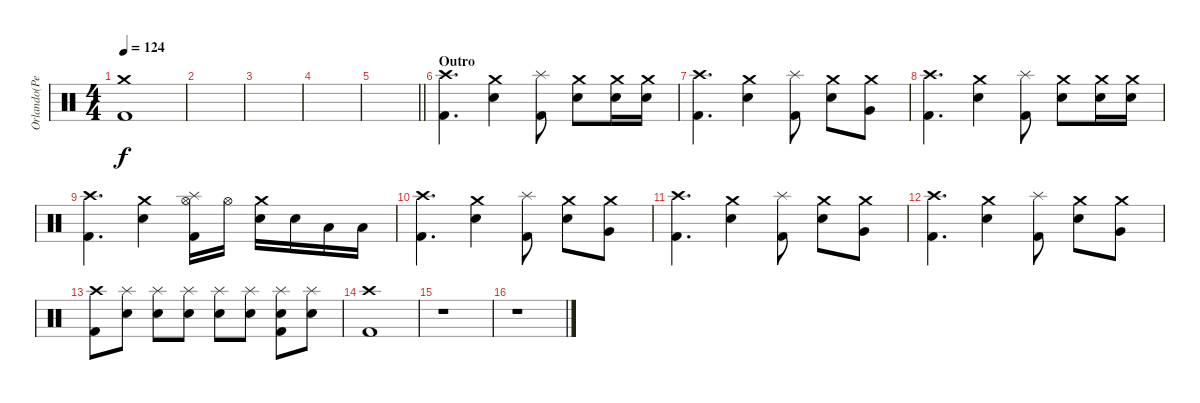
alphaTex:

\track ("Orlando(Percusión)" "Orlando(Pe") {instrument percussion}
\staff {score}
\articulation defaults
\ts (4 4)
\tempo 124
\clef neutral
\ks c
("Crash medium (hit)" "Kick (hit) 2").1{dy f} |
|
|
|
\barLineRight lightlight
|
\section ("" "Outro")
("Crash high (hit)" "Kick (hit) 2").4{d} ("Crash medium (hit)" "Electric Snare (hit)").4 ("Splash (hit)" "Kick (hit) 2").8 ("Crash medium (hit)" "Electric Snare (hit)").8 ("Crash medium (hit)" "Electric Snare (hit)").16 ("Crash medium (hit)" "Electric Snare (hit)").16 |
("Crash high (hit)" "Kick (hit) 2").4{d} ("Crash medium (hit)" "Electric Snare (hit)").4 ("Splash (hit)" "Kick (hit) 2").8 ("Crash medium (hit)" "Electric Snare (hit)").8 ("Crash medium (hit)" "Very Low Tom (hit)").8 |
("Crash high (hit)" "Kick (hit) 2").4{d} ("Crash medium (hit)" "Electric Snare (hit)").4 ("Splash (hit)" "Kick (hit) 2").8 ("Crash medium (hit)" "Electric Snare (hit)").8 ("Crash medium (hit)" "Electric Snare (hit)").16 ("Crash medium (hit)" "Electric Snare (hit)").16 |
("Crash high (hit)" "Kick (hit) 2").4{d} ("Crash medium (hit)" "Electric Snare (hit)").4 ("Splash (hit)" "Hi-Hat (open)" "Kick (hit) 2").16 "Hi-Hat (open)".16 ("Crash medium (hit)" "Electric Snare (hit)").16 "Electric Snare (hit)".16 "Low Tom (hit)".16 "Low Tom (hit)".16 |
("Crash high (hit)" "Kick (hit) 2").4{d} ("Crash medium (hit)" "Electric Snare (hit)").4 ("Splash (hit)" "Kick (hit) 2").8 ("Crash medium (hit)" "Electric Snare (hit)").8 ("Crash medium (hit)" "Very Low Tom (hit)").8 |
("Crash high (hit)" "Kick (hit) 2").4{d} ("Crash medium (hit)" "Electric Snare (hit)").4 ("Splash (hit)" "Kick (hit) 2").8 ("Crash medium (hit)" "Electric Snare (hit)").8 ("Crash medium (hit)" "Very Low Tom (hit)").8 |
("Crash high (hit)" "Kick (hit) 2").4{d} ("Crash medium (hit)" "Electric Snare (hit)").4 ("Splash (hit)" "Kick (hit) 2").8 ("Crash medium (hit)" "Electric Snare (hit)").8 ("Crash medium (hit)" "Very Low Tom (hit)").8 |
("Crash high (hit)" "Kick (hit) 2").8{volume 4} ("Splash (hit)" "Electric Snare (hit)").8{volume 12} ("Splash (hit)" "Electric Snare (hit)").8 ("Splash (hit)" "Electric Snare (hit)").8 ("Splash (hit)" "Electric Snare (hit)").8 ("Splash (hit)" "Electric Snare (hit)").8 ("Splash (hit)" "Electric Snare (hit)" "Kick (hit) 2").8 ("Splash (hit)" "Electric Snare (hit)").8 |
("Crash high (hit)" "Kick (hit) 2").1 |
r.1 |
r.1
